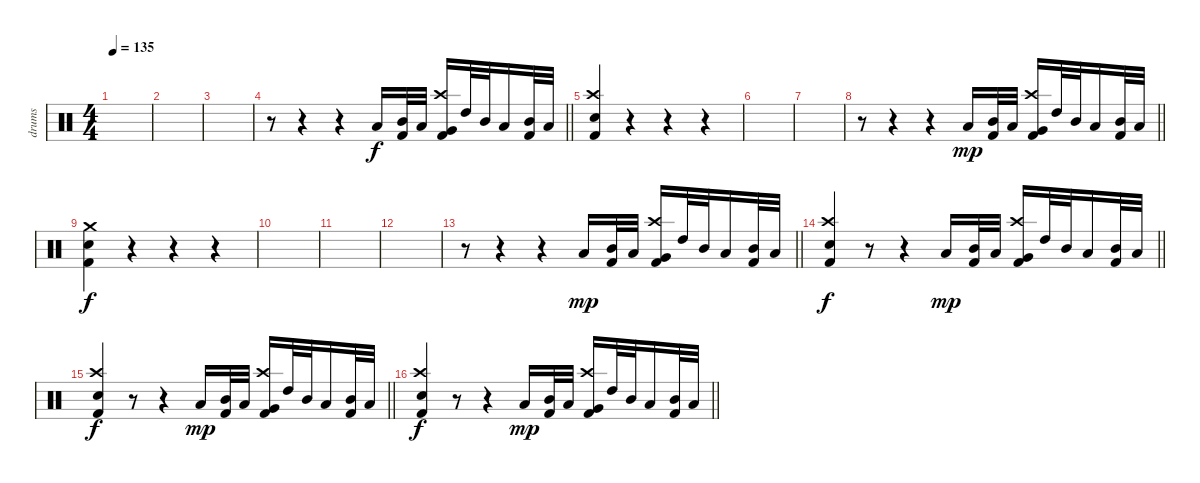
\track ("drums" "drums") {instrument percussion}
\staff {score}
\articulation defaults
\ts (4 4)
\tempo 135
\clef neutral
\ks c
|
|
|
\barLineRight lightlight
r.8 r.4 r.4 "Low Tom (hit)".16 ("Mid Tom (hit)" "Kick (hit) 2").32 "Low Tom (hit)".32 ("Crash high (hit)" "Very Low Tom (hit)" "Kick (hit) 2").16 "High Tom (hit)".32 "Mid Tom (hit)".32 "Low Tom (hit)".16 ("Mid Tom (hit)" "Kick (hit) 2").32 "Low Tom (hit)".32 |
("Snare (hit) 2" "Crash high (hit)" "Kick (hit) 2").4{dy f} r.4 r.4 r.4 |
|
|
\barLineRight lightlight
r.8 r.4 r.4 "Low Tom (hit)".16{dy mp} ("Mid Tom (hit)" "Kick (hit) 2").32 "Low Tom (hit)".32 ("Crash high (hit)" "Very Low Tom (hit)" "Kick (hit) 2").16 "High Tom (hit)".32 "Mid Tom (hit)".32 "Low Tom (hit)".16 ("Mid Tom (hit)" "Kick (hit) 2").32 "Low Tom (hit)".32 |
("Crash medium (hit)" "Snare (hit) 2" "Kick (hit) 2").4{dy f} r.4 r.4 r.4 |
|
|
|
\barLineRight lightlight
r.8 r.4 r.4 "Low Tom (hit)".16{dy mp} ("Mid Tom (hit)" "Kick (hit) 2").32 "Low Tom (hit)".32 ("Crash high (hit)" "Very Low Tom (hit)" "Kick (hit) 2").16 "High Tom (hit)".32 "Mid Tom (hit)".32 "Low Tom (hit)".16 ("Mid Tom (hit)" "Kick (hit) 2").32 "Low Tom (hit)".32 |
\barLineRight lightlight
("Snare (hit) 2" "Crash high (hit)" "Kick (hit) 2").4{dy f} r.8 r.4 "Low Tom (hit)".16{dy mp} ("Mid Tom (hit)" "Kick (hit) 2").32 "Low Tom (hit)".32 ("Crash high (hit)" "Very Low Tom (hit)" "Kick (hit) 2").16 "High Tom (hit)".32 "Mid Tom (hit)".32 "Low Tom (hit)".16 ("Mid Tom (hit)" "Kick (hit) 2").32 "Low Tom (hit)".32 |
\barLineRight lightlight
("Snare (hit) 2" "Crash high (hit)" "Kick (hit) 2").4{dy f} r.8 r.4 "Low Tom (hit)".16{dy mp} ("Mid Tom (hit)" "Kick (hit) 2").32 "Low Tom (hit)".32 ("Crash high (hit)" "Very Low Tom (hit)" "Kick (hit) 2").16 "High Tom (hit)".32 "Mid Tom (hit)".32 "Low Tom (hit)".16 ("Mid Tom (hit)" "Kick (hit) 2").32 "Low Tom (hit)".32 |
\barLineRight lightlight
("Snare (hit) 2" "Crash high (hit)" "Kick (hit) 2").4{dy f} r.8 r.4 "Low Tom (hit)".16{dy mp} ("Mid Tom (hit)" "Kick (hit) 2").32 "Low Tom (hit)".32 ("Crash high (hit)" "Very Low Tom (hit)" "Kick (hit) 2").16 "High Tom (hit)".32 "Mid Tom (hit)".32 "Low Tom (hit)".16 ("Mid Tom (hit)" "Kick (hit) 2").32 "Low Tom (hit)".32
